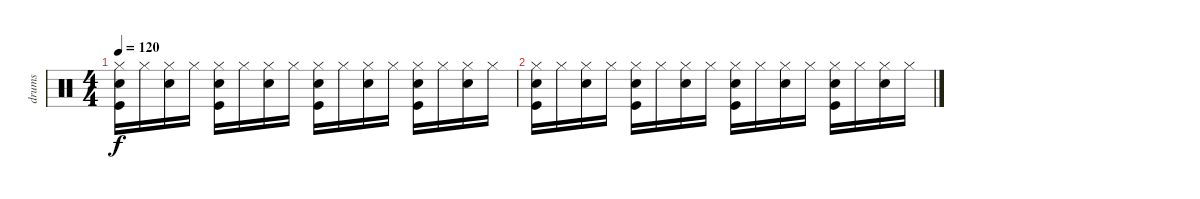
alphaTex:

\track ("drums" "drums") {instrument percussion}
\staff {score}
\articulation defaults
\ts (4 4)
\tempo 120
\clef neutral
\ks c
("Hi-Hat (closed)" "Electric Snare (hit)" "Kick (hit)").16{dy f} "Hi-Hat (closed)".16 ("Hi-Hat (closed)" "Electric Snare (hit)").16 "Hi-Hat (closed)".16 ("Hi-Hat (closed)" "Electric Snare (hit)" "Kick (hit)").16 "Hi-Hat (closed)".16 ("Hi-Hat (closed)" "Electric Snare (hit)").16 "Hi-Hat (closed)".16 ("Hi-Hat (closed)" "Electric Snare (hit)" "Kick (hit)").16 "Hi-Hat (closed)".16 ("Hi-Hat (closed)" "Electric Snare (hit)").16 "Hi-Hat (closed)".16 ("Hi-Hat (closed)" "Electric Snare (hit)" "Kick (hit)").16 "Hi-Hat (closed)".16 ("Hi-Hat (closed)" "Electric Snare (hit)").16 "Hi-Hat (closed)".16 |
("Hi-Hat (closed)" "Electric Snare (hit)" "Kick (hit)").16 "Hi-Hat (closed)".16 ("Hi-Hat (closed)" "Electric Snare (hit)").16 "Hi-Hat (closed)".16 ("Hi-Hat (closed)" "Electric Snare (hit)" "Kick (hit)").16 "Hi-Hat (closed)".16 ("Hi-Hat (closed)" "Electric Snare (hit)").16 "Hi-Hat (closed)".16 ("Hi-Hat (closed)" "Electric Snare (hit)" "Kick (hit)").16 "Hi-Hat (closed)".16 ("Hi-Hat (closed)" "Electric Snare (hit)").16 "Hi-Hat (closed)".16 ("Hi-Hat (closed)" "Electric Snare (hit)" "Kick (hit)").16 "Hi-Hat (closed)".16 ("Hi-Hat (closed)" "Electric Snare (hit)").16 "Hi-Hat (closed)".16
